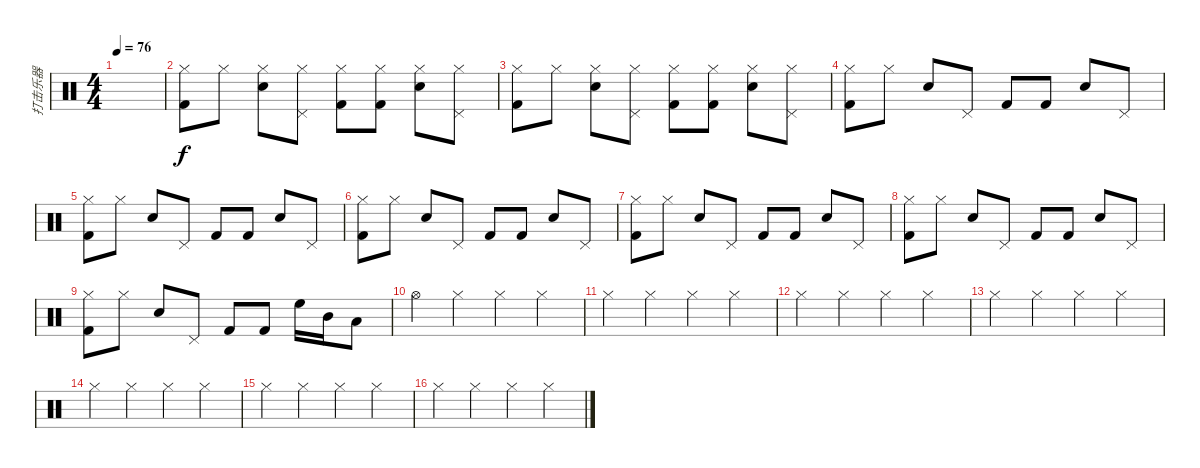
\track ("打击乐器" "打击乐器") {instrument percussion}
\staff {score}
\articulation defaults
\ts (4 4)
\tempo 76
\clef neutral
\ks c
|
("Hi-Hat (closed)" "Kick (hit) 2").8 "Hi-Hat (closed)".8 ("Hi-Hat (closed)" "Snare (hit) 2").8 ("Hi-Hat (closed)" "Pedal Hi-Hat (hit)").8 ("Hi-Hat (closed)" "Kick (hit) 2").8 ("Hi-Hat (closed)" "Kick (hit) 2").8 ("Hi-Hat (closed)" "Snare (hit) 2").8 ("Hi-Hat (closed)" "Pedal Hi-Hat (hit)").8 |
("Hi-Hat (closed)" "Kick (hit) 2").8 "Hi-Hat (closed)".8 ("Hi-Hat (closed)" "Snare (hit) 2").8 ("Hi-Hat (closed)" "Pedal Hi-Hat (hit)").8 ("Hi-Hat (closed)" "Kick (hit) 2").8 ("Hi-Hat (closed)" "Kick (hit) 2").8 ("Hi-Hat (closed)" "Snare (hit) 2").8 ("Hi-Hat (closed)" "Pedal Hi-Hat (hit)").8 |
("Hi-Hat (closed)" "Kick (hit) 2").8 "Hi-Hat (closed)".8 "Snare (hit) 2".8 "Pedal Hi-Hat (hit)".8 "Kick (hit) 2".8 "Kick (hit) 2".8 "Snare (hit) 2".8 "Pedal Hi-Hat (hit)".8 |
("Hi-Hat (closed)" "Kick (hit) 2").8 "Hi-Hat (closed)".8 "Snare (hit) 2".8 "Pedal Hi-Hat (hit)".8 "Kick (hit) 2".8 "Kick (hit) 2".8 "Snare (hit) 2".8 "Pedal Hi-Hat (hit)".8 |
("Hi-Hat (closed)" "Kick (hit) 2").8 "Hi-Hat (closed)".8 "Snare (hit) 2".8 "Pedal Hi-Hat (hit)".8 "Kick (hit) 2".8 "Kick (hit) 2".8 "Snare (hit) 2".8 "Pedal Hi-Hat (hit)".8 |
("Hi-Hat (closed)" "Kick (hit) 2").8 "Hi-Hat (closed)".8 "Snare (hit) 2".8 "Pedal Hi-Hat (hit)".8 "Kick (hit) 2".8 "Kick (hit) 2".8 "Snare (hit) 2".8 "Pedal Hi-Hat (hit)".8 |
("Hi-Hat (closed)" "Kick (hit) 2").8 "Hi-Hat (closed)".8 "Snare (hit) 2".8 "Pedal Hi-Hat (hit)".8 "Kick (hit) 2".8 "Kick (hit) 2".8 "Snare (hit) 2".8 "Pedal Hi-Hat (hit)".8 |
("Hi-Hat (closed)" "Kick (hit) 2").8 "Hi-Hat (closed)".8 "Snare (hit) 2".8 "Pedal Hi-Hat (hit)".8 "Kick (hit) 2".8 "Kick (hit) 2".8 "High Floor Tom (hit)".16 "Mid Tom (hit)".16 "Low Tom (hit)".8 |
"Hi-Hat (open)".4 "Hi-Hat (closed)".4 "Hi-Hat (closed)".4 "Hi-Hat (closed)".4 |
"Hi-Hat (closed)".4 "Hi-Hat (closed)".4 "Hi-Hat (closed)".4 "Hi-Hat (closed)".4 |
"Hi-Hat (closed)".4 "Hi-Hat (closed)".4 "Hi-Hat (closed)".4 "Hi-Hat (closed)".4 |
"Hi-Hat (closed)".4 "Hi-Hat (closed)".4 "Hi-Hat (closed)".4 "Hi-Hat (closed)".4 |
"Hi-Hat (closed)".4 "Hi-Hat (closed)".4 "Hi-Hat (closed)".4 "Hi-Hat (closed)".4 |
"Hi-Hat (closed)".4 "Hi-Hat (closed)".4 "Hi-Hat (closed)".4 "Hi-Hat (closed)".4 |
"Hi-Hat (closed)".4 "Hi-Hat (closed)".4 "Hi-Hat (closed)".4 "Hi-Hat (closed)".4
